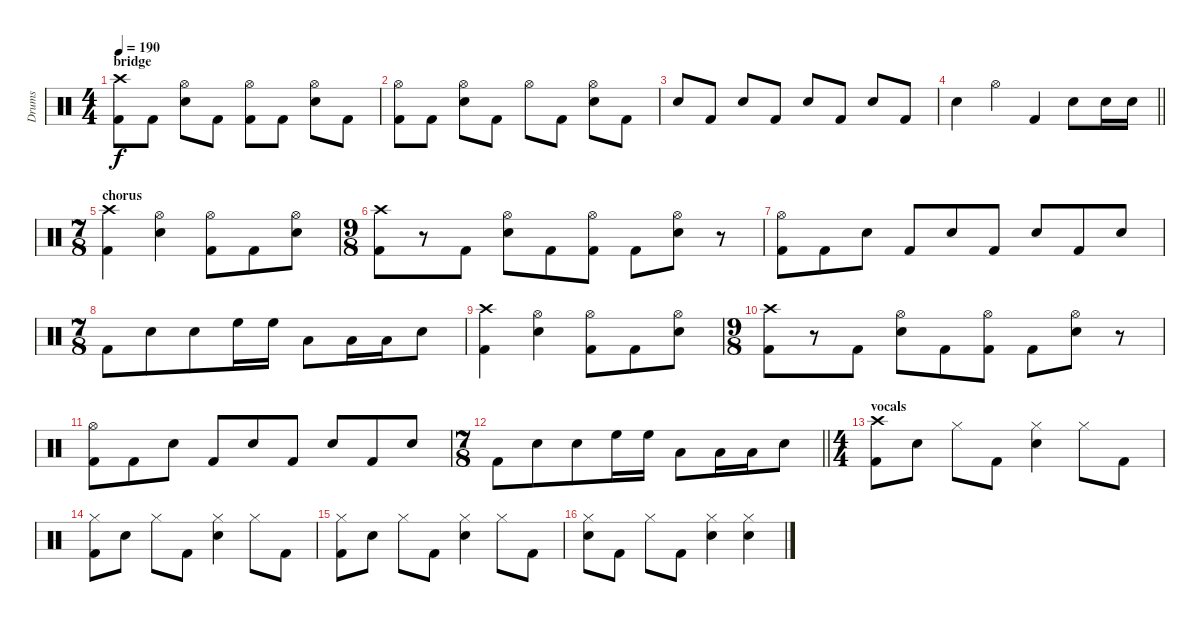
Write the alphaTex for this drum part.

\track ("Drums" "Drums") {instrument percussion}
\staff {score}
\articulation defaults
\ts (4 4)
\section ("" "bridge")
\tempo 190
\clef neutral
\ks c
("Crash high (hit)" "Kick (hit) 2").8{dy f} "Kick (hit) 2".8 ("Hi-Hat (open)" "Snare (hit) 2").8 "Kick (hit) 2".8 ("Hi-Hat (open)" "Kick (hit) 2").8 "Kick (hit) 2".8 ("Hi-Hat (open)" "Snare (hit) 2").8 "Kick (hit) 2".8 |
("Hi-Hat (open)" "Kick (hit) 2").8 "Kick (hit) 2".8 ("Hi-Hat (open)" "Snare (hit) 2").8 "Kick (hit) 2".8 "Hi-Hat (open)".8 "Kick (hit) 2".8 ("Hi-Hat (open)" "Snare (hit) 2").8 "Kick (hit) 2".8 |
"Snare (hit) 2".8 "Kick (hit) 2".8 "Snare (hit) 2".8 "Kick (hit) 2".8 "Snare (hit) 2".8 "Kick (hit) 2".8 "Snare (hit) 2".8 "Kick (hit) 2".8 |
\barLineRight lightlight "Snare (hit) 2".4 "Hi-Hat (open)".4 "Kick (hit) 2".4 "Snare (hit) 2".8 "Snare (hit) 2".16 "Snare (hit) 2".16
|
\ts (7 8)
\section ("" "chorus")
("Crash high (hit)" "Kick (hit) 2").4 ("Hi-Hat (open)" "Snare (hit) 2").4 ("Hi-Hat (open)" "Kick (hit) 2").8 "Kick (hit) 2".8 ("Hi-Hat (open)" "Snare (hit) 2").8 |
\ts (9 8)
("Crash high (hit)" "Kick (hit) 2").8 r.8 "Kick (hit) 2".8 ("Hi-Hat (open)" "Snare (hit) 2").8 "Kick (hit) 2".8 ("Hi-Hat (open)" "Kick (hit) 2").8 "Kick (hit) 2".8 ("Hi-Hat (open)" "Snare (hit) 2").8 r.8 |
("Hi-Hat (open)" "Kick (hit) 2").8 "Kick (hit) 2".8 "Snare (hit) 2".8 "Kick (hit) 2".8 "Snare (hit) 2".8 "Kick (hit) 2".8 "Snare (hit) 2".8 "Kick (hit) 2".8 "Snare (hit) 2".8 |
\ts (7 8)
"Kick (hit) 2".8 "Snare (hit) 2".8 "Snare (hit) 2".8 "High Floor Tom (hit)".16 "High Floor Tom (hit)".16 "Low Tom (hit)".8 "Low Tom (hit)".16 "Low Tom (hit)".16 "Snare (hit) 2".8 |
("Crash high (hit)" "Kick (hit) 2").4 ("Hi-Hat (open)" "Snare (hit) 2").4 ("Hi-Hat (open)" "Kick (hit) 2").8 "Kick (hit) 2".8 ("Hi-Hat (open)" "Snare (hit) 2").8 |
\ts (9 8)
("Crash high (hit)" "Kick (hit) 2").8 r.8 "Kick (hit) 2".8 ("Hi-Hat (open)" "Snare (hit) 2").8 "Kick (hit) 2".8 ("Hi-Hat (open)" "Kick (hit) 2").8 "Kick (hit) 2".8 ("Hi-Hat (open)" "Snare (hit) 2").8 r.8 |
("Hi-Hat (open)" "Kick (hit) 2").8 "Kick (hit) 2".8 "Snare (hit) 2".8 "Kick (hit) 2".8 "Snare (hit) 2".8 "Kick (hit) 2".8 "Snare (hit) 2".8 "Kick (hit) 2".8 "Snare (hit) 2".8 |
\ts (7 8)
\barLineRight lightlight "Kick (hit) 2".8 "Snare (hit) 2".8 "Snare (hit) 2".8 "High Floor Tom (hit)".16 "High Floor Tom (hit)".16 "Low Tom (hit)".8 "Low Tom (hit)".16 "Low Tom (hit)".16 "Snare (hit) 2".8
|
\ts (4 4)
\section ("" "vocals")
("Crash high (hit)" "Kick (hit) 2").8 "Snare (hit) 2".8 "Hi-Hat (closed)".8 "Kick (hit) 2".8 ("Hi-Hat (closed)" "Snare (hit) 2").4 "Hi-Hat (closed)".8 "Kick (hit) 2".8 |
("Hi-Hat (closed)" "Kick (hit) 2").8 "Snare (hit) 2".8 "Hi-Hat (closed)".8 "Kick (hit) 2".8 ("Hi-Hat (closed)" "Snare (hit) 2").4 "Hi-Hat (closed)".8 "Kick (hit) 2".8 |
("Hi-Hat (closed)" "Kick (hit) 2").8 "Snare (hit) 2".8 "Hi-Hat (closed)".8 "Kick (hit) 2".8 ("Hi-Hat (closed)" "Snare (hit) 2").4 "Hi-Hat (closed)".8 "Kick (hit) 2".8 |
("Hi-Hat (closed)" "Snare (hit) 2").8 "Kick (hit) 2".8 "Hi-Hat (closed)".8 "Kick (hit) 2".8 ("Hi-Hat (closed)" "Snare (hit) 2").4 ("Hi-Hat (closed)" "Snare (hit) 2").4
